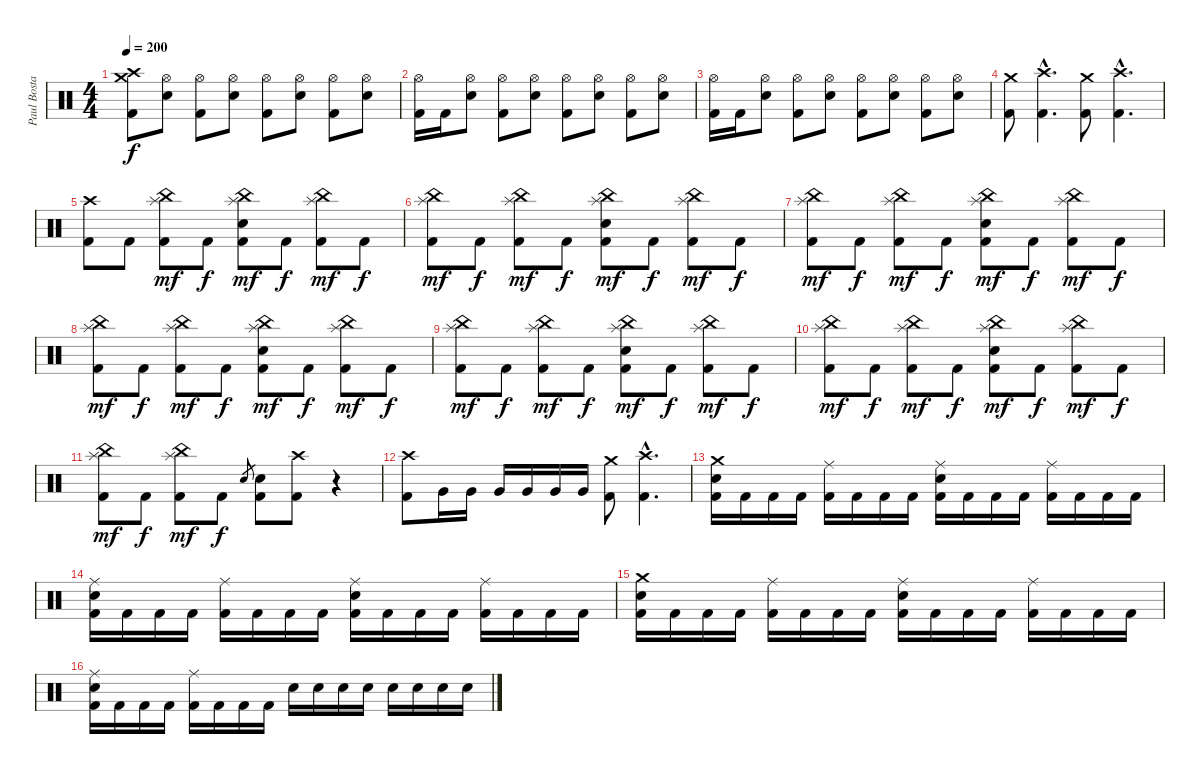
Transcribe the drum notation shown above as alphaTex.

\track ("Paul Bostaph" "Paul Bosta") {instrument percussion}
\staff {score}
\articulation defaults
\ts (4 4)
\tempo 200
\clef neutral
\ks c
("Crash medium (hit)" "Crash high (hit)" "Kick (hit) 2").8{dy f} ("Hi-Hat (open)" "Electric Snare (hit)").8 ("Hi-Hat (open)" "Kick (hit) 2").8 ("Hi-Hat (open)" "Electric Snare (hit)").8 ("Hi-Hat (open)" "Kick (hit) 2").8 ("Hi-Hat (open)" "Electric Snare (hit)").8 ("Hi-Hat (open)" "Kick (hit) 2").8 ("Hi-Hat (open)" "Electric Snare (hit)").8 |
("Hi-Hat (open)" "Kick (hit) 2").16 "Kick (hit) 2".16 ("Hi-Hat (open)" "Electric Snare (hit)").8 ("Hi-Hat (open)" "Kick (hit) 2").8 ("Hi-Hat (open)" "Electric Snare (hit)").8 ("Hi-Hat (open)" "Kick (hit) 2").8 ("Hi-Hat (open)" "Electric Snare (hit)").8 ("Hi-Hat (open)" "Kick (hit) 2").8 ("Hi-Hat (open)" "Electric Snare (hit)").8 |
("Hi-Hat (open)" "Kick (hit) 2").16 "Kick (hit) 2".16 ("Hi-Hat (open)" "Electric Snare (hit)").8 ("Hi-Hat (open)" "Kick (hit) 2").8 ("Hi-Hat (open)" "Electric Snare (hit)").8 ("Hi-Hat (open)" "Kick (hit) 2").8 ("Hi-Hat (open)" "Electric Snare (hit)").8 ("Hi-Hat (open)" "Kick (hit) 2").8 ("Hi-Hat (open)" "Electric Snare (hit)").8 |
("Crash medium (hit)" "Kick (hit) 2").8 ("Crash high (hit)"{hac} "Kick (hit) 2"{hac}).4{d} ("Crash medium (hit)" "Kick (hit) 2").8 ("Crash high (hit)"{hac} "Kick (hit) 2"{hac}).4{d} |
("Kick (hit) 2" "Crash high (hit)").8 "Kick (hit) 2".8 ("Kick (hit) 2" "Splash (hit)" "China (hit)").8{dy mf} "Kick (hit) 2".8{dy f} ("Kick (hit) 2" "Electric Snare (hit)" "Splash (hit)" "China (hit)").8{dy mf} "Kick (hit) 2".8{dy f} ("Kick (hit) 2" "Splash (hit)" "China (hit)").8{dy mf} "Kick (hit) 2".8{dy f} |
("Kick (hit) 2" "Splash (hit)" "China (hit)").8{dy mf} "Kick (hit) 2".8{dy f} ("Kick (hit) 2" "Splash (hit)" "China (hit)").8{dy mf} "Kick (hit) 2".8{dy f} ("Kick (hit) 2" "Electric Snare (hit)" "Splash (hit)" "China (hit)").8{dy mf} "Kick (hit) 2".8{dy f} ("Kick (hit) 2" "Splash (hit)" "China (hit)").8{dy mf} "Kick (hit) 2".8{dy f} |
("Kick (hit) 2" "Splash (hit)" "China (hit)").8{dy mf} "Kick (hit) 2".8{dy f} ("Kick (hit) 2" "Splash (hit)" "China (hit)").8{dy mf} "Kick (hit) 2".8{dy f} ("Kick (hit) 2" "Electric Snare (hit)" "Splash (hit)" "China (hit)").8{dy mf} "Kick (hit) 2".8{dy f} ("Kick (hit) 2" "Splash (hit)" "China (hit)").8{dy mf} "Kick (hit) 2".8{dy f} |
("Kick (hit) 2" "Splash (hit)" "China (hit)").8{dy mf} "Kick (hit) 2".8{dy f} ("Kick (hit) 2" "Splash (hit)" "China (hit)").8{dy mf} "Kick (hit) 2".8{dy f} ("Kick (hit) 2" "Electric Snare (hit)" "Splash (hit)" "China (hit)").8{dy mf} "Kick (hit) 2".8{dy f} ("Kick (hit) 2" "Splash (hit)" "China (hit)").8{dy mf} "Kick (hit) 2".8{dy f} |
("Kick (hit) 2" "Splash (hit)" "China (hit)").8{dy mf} "Kick (hit) 2".8{dy f} ("Kick (hit) 2" "Splash (hit)" "China (hit)").8{dy mf} "Kick (hit) 2".8{dy f} ("Kick (hit) 2" "Electric Snare (hit)" "Splash (hit)" "China (hit)").8{dy mf} "Kick (hit) 2".8{dy f} ("Kick (hit) 2" "Splash (hit)" "China (hit)").8{dy mf} "Kick (hit) 2".8{dy f} |
("Kick (hit) 2" "Splash (hit)" "China (hit)").8{dy mf} "Kick (hit) 2".8{dy f} ("Kick (hit) 2" "Splash (hit)" "China (hit)").8{dy mf} "Kick (hit) 2".8{dy f} ("Kick (hit) 2" "Electric Snare (hit)" "Splash (hit)" "China (hit)").8{dy mf} "Kick (hit) 2".8{dy f} ("Kick (hit) 2" "Splash (hit)" "China (hit)").8{dy mf} "Kick (hit) 2".8{dy f} |
("Kick (hit) 2" "Splash (hit)" "China (hit)").8{dy mf} "Kick (hit) 2".8{dy f} ("Kick (hit) 2" "Splash (hit)" "China (hit)").8{dy mf} "Kick (hit) 2".8{dy f} "Electric Snare (hit)".8{gr} ("Kick (hit) 2" "Electric Snare (hit)").8 ("Kick (hit) 2" "Crash high (hit)").8 r.4 |
("Crash high (hit)" "Kick (hit) 2").8 "Very Low Tom (hit)".16 "Very Low Tom (hit)".16 "Very Low Tom (hit)".16 "Very Low Tom (hit)".16 "Very Low Tom (hit)".16 "Very Low Tom (hit)".16 ("Crash medium (hit)" "Kick (hit) 2").8 ("Crash high (hit)"{hac} "Kick (hit) 2"{hac}).4{d} |
("Electric Snare (hit)" "Kick (hit) 2" "Crash medium (hit)").16 "Kick (hit) 2".16 "Kick (hit) 2".16 "Kick (hit) 2".16 ("Kick (hit) 2" "Ride (middle)").16 "Kick (hit) 2".16 "Kick (hit) 2".16 "Kick (hit) 2".16 ("Electric Snare (hit)" "Kick (hit) 2" "Ride (middle)").16 "Kick (hit) 2".16 "Kick (hit) 2".16 "Kick (hit) 2".16 ("Kick (hit) 2" "Ride (middle)").16 "Kick (hit) 2".16 "Kick (hit) 2".16 "Kick (hit) 2".16 |
("Electric Snare (hit)" "Kick (hit) 2" "Ride (middle)").16 "Kick (hit) 2".16 "Kick (hit) 2".16 "Kick (hit) 2".16 ("Kick (hit) 2" "Ride (middle)").16 "Kick (hit) 2".16 "Kick (hit) 2".16 "Kick (hit) 2".16 ("Electric Snare (hit)" "Kick (hit) 2" "Ride (middle)").16 "Kick (hit) 2".16 "Kick (hit) 2".16 "Kick (hit) 2".16 ("Kick (hit) 2" "Ride (middle)").16 "Kick (hit) 2".16 "Kick (hit) 2".16 "Kick (hit) 2".16 |
("Electric Snare (hit)" "Kick (hit) 2" "Crash medium (hit)").16 "Kick (hit) 2".16 "Kick (hit) 2".16 "Kick (hit) 2".16 ("Kick (hit) 2" "Ride (middle)").16 "Kick (hit) 2".16 "Kick (hit) 2".16 "Kick (hit) 2".16 ("Electric Snare (hit)" "Kick (hit) 2" "Ride (middle)").16 "Kick (hit) 2".16 "Kick (hit) 2".16 "Kick (hit) 2".16 ("Kick (hit) 2" "Ride (middle)").16 "Kick (hit) 2".16 "Kick (hit) 2".16 "Kick (hit) 2".16 |
("Electric Snare (hit)" "Kick (hit) 2" "Ride (middle)").16 "Kick (hit) 2".16 "Kick (hit) 2".16 "Kick (hit) 2".16 ("Kick (hit) 2" "Ride (middle)").16 "Kick (hit) 2".16 "Kick (hit) 2".16 "Kick (hit) 2".16 "Electric Snare (hit)".16 "Electric Snare (hit)".16 "Electric Snare (hit)".16 "Electric Snare (hit)".16 "Electric Snare (hit)".16 "Electric Snare (hit)".16 "Electric Snare (hit)".16 "Electric Snare (hit)".16
